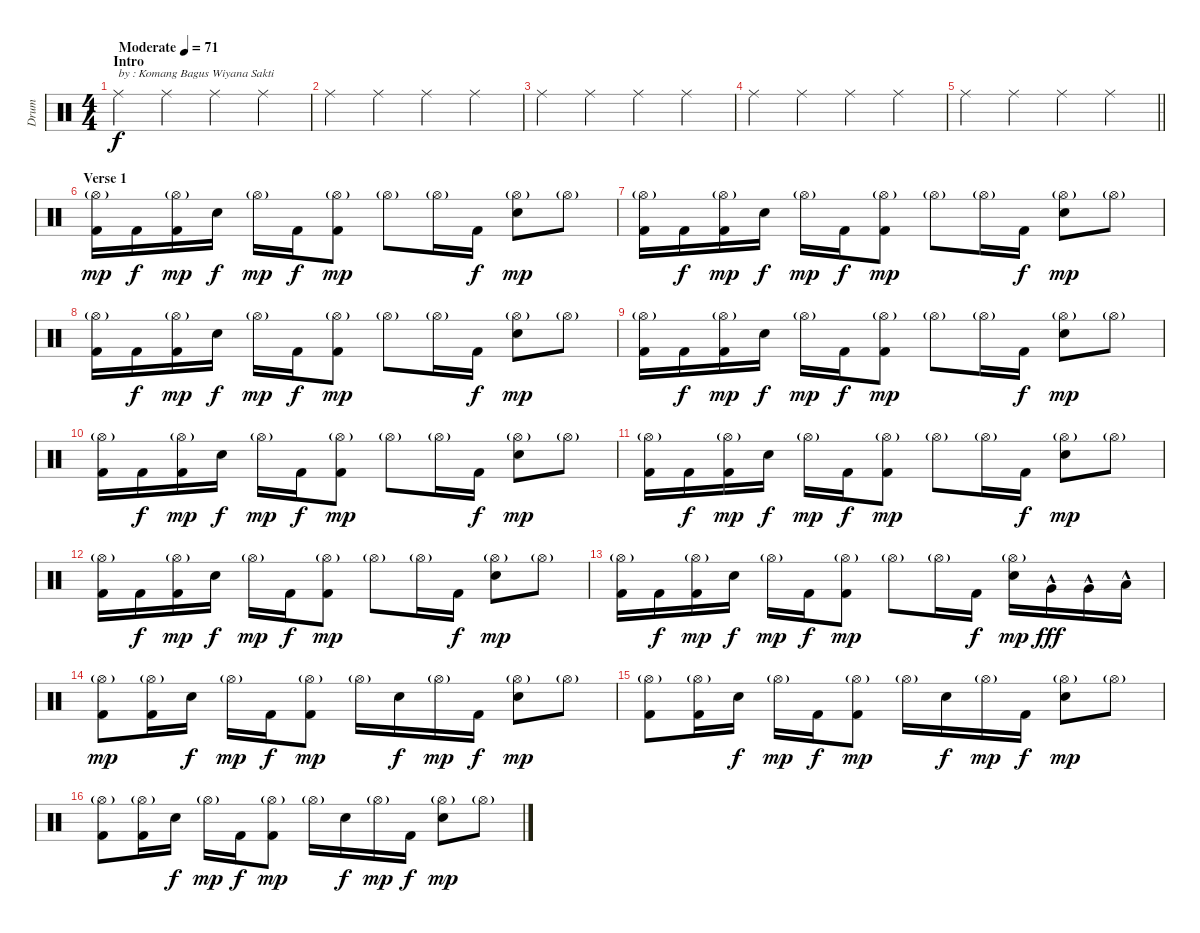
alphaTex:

\track ("Drum" "Drum") {instrument percussion}
\staff {score}
\articulation defaults
\ts (4 4)
\section ("" "Intro")
\tempo (71 "Moderate")
\clef neutral
\ks c "Ride (middle)".4{txt "by : Komang Bagus Wiyana Sakti" dy f} "Ride (middle)".4 "Ride (middle)".4 "Ride (middle)".4
|
"Ride (middle)".4 "Ride (middle)".4 "Ride (middle)".4 "Ride (middle)".4 |
"Ride (middle)".4 "Ride (middle)".4 "Ride (middle)".4 "Ride (middle)".4 |
"Ride (middle)".4 "Ride (middle)".4 "Ride (middle)".4 "Ride (middle)".4 |
\barLineRight lightlight "Ride (middle)".4 "Ride (middle)".4 "Ride (middle)".4 "Ride (middle)".4
|
\section ("" "Verse 1")
("Hi-Hat (open)"{g} "Kick (hit) 2").16{dy mp} "Kick (hit) 2".16{dy f} ("Hi-Hat (open)"{g} "Kick (hit) 2").16{dy mp} "Electric Snare (hit)".16{dy f} "Hi-Hat (open)"{g}.16{dy mp} "Kick (hit) 2".16{dy f} ("Hi-Hat (open)"{g} "Kick (hit) 2").8{dy mp} "Hi-Hat (open)"{g}.8 "Hi-Hat (open)"{g}.16 "Kick (hit) 2".16{dy f} ("Hi-Hat (open)"{g} "Electric Snare (hit)").8{dy mp} "Hi-Hat (open)"{g}.8 |
("Hi-Hat (open)"{g} "Kick (hit) 2").16 "Kick (hit) 2".16{dy f} ("Hi-Hat (open)"{g} "Kick (hit) 2").16{dy mp} "Electric Snare (hit)".16{dy f} "Hi-Hat (open)"{g}.16{dy mp} "Kick (hit) 2".16{dy f} ("Hi-Hat (open)"{g} "Kick (hit) 2").8{dy mp} "Hi-Hat (open)"{g}.8 "Hi-Hat (open)"{g}.16 "Kick (hit) 2".16{dy f} ("Hi-Hat (open)"{g} "Electric Snare (hit)").8{dy mp} "Hi-Hat (open)"{g}.8 |
("Hi-Hat (open)"{g} "Kick (hit) 2").16 "Kick (hit) 2".16{dy f} ("Hi-Hat (open)"{g} "Kick (hit) 2").16{dy mp} "Electric Snare (hit)".16{dy f} "Hi-Hat (open)"{g}.16{dy mp} "Kick (hit) 2".16{dy f} ("Hi-Hat (open)"{g} "Kick (hit) 2").8{dy mp} "Hi-Hat (open)"{g}.8 "Hi-Hat (open)"{g}.16 "Kick (hit) 2".16{dy f} ("Hi-Hat (open)"{g} "Electric Snare (hit)").8{dy mp} "Hi-Hat (open)"{g}.8 |
("Hi-Hat (open)"{g} "Kick (hit) 2").16 "Kick (hit) 2".16{dy f} ("Hi-Hat (open)"{g} "Kick (hit) 2").16{dy mp} "Electric Snare (hit)".16{dy f} "Hi-Hat (open)"{g}.16{dy mp} "Kick (hit) 2".16{dy f} ("Hi-Hat (open)"{g} "Kick (hit) 2").8{dy mp} "Hi-Hat (open)"{g}.8 "Hi-Hat (open)"{g}.16 "Kick (hit) 2".16{dy f} ("Hi-Hat (open)"{g} "Electric Snare (hit)").8{dy mp} "Hi-Hat (open)"{g}.8 |
("Hi-Hat (open)"{g} "Kick (hit) 2").16 "Kick (hit) 2".16{dy f} ("Hi-Hat (open)"{g} "Kick (hit) 2").16{dy mp} "Electric Snare (hit)".16{dy f} "Hi-Hat (open)"{g}.16{dy mp} "Kick (hit) 2".16{dy f} ("Hi-Hat (open)"{g} "Kick (hit) 2").8{dy mp} "Hi-Hat (open)"{g}.8 "Hi-Hat (open)"{g}.16 "Kick (hit) 2".16{dy f} ("Hi-Hat (open)"{g} "Electric Snare (hit)").8{dy mp} "Hi-Hat (open)"{g}.8 |
("Hi-Hat (open)"{g} "Kick (hit) 2").16 "Kick (hit) 2".16{dy f} ("Hi-Hat (open)"{g} "Kick (hit) 2").16{dy mp} "Electric Snare (hit)".16{dy f} "Hi-Hat (open)"{g}.16{dy mp} "Kick (hit) 2".16{dy f} ("Hi-Hat (open)"{g} "Kick (hit) 2").8{dy mp} "Hi-Hat (open)"{g}.8 "Hi-Hat (open)"{g}.16 "Kick (hit) 2".16{dy f} ("Hi-Hat (open)"{g} "Electric Snare (hit)").8{dy mp} "Hi-Hat (open)"{g}.8 |
("Hi-Hat (open)"{g} "Kick (hit) 2").16 "Kick (hit) 2".16{dy f} ("Hi-Hat (open)"{g} "Kick (hit) 2").16{dy mp} "Electric Snare (hit)".16{dy f} "Hi-Hat (open)"{g}.16{dy mp} "Kick (hit) 2".16{dy f} ("Hi-Hat (open)"{g} "Kick (hit) 2").8{dy mp} "Hi-Hat (open)"{g}.8 "Hi-Hat (open)"{g}.16 "Kick (hit) 2".16{dy f} ("Hi-Hat (open)"{g} "Electric Snare (hit)").8{dy mp} "Hi-Hat (open)"{g}.8 |
("Hi-Hat (open)"{g} "Kick (hit) 2").16 "Kick (hit) 2".16{dy f} ("Hi-Hat (open)"{g} "Kick (hit) 2").16{dy mp} "Electric Snare (hit)".16{dy f} "Hi-Hat (open)"{g}.16{dy mp} "Kick (hit) 2".16{dy f} ("Hi-Hat (open)"{g} "Kick (hit) 2").8{dy mp} "Hi-Hat (open)"{g}.8 "Hi-Hat (open)"{g}.16 "Kick (hit) 2".16{dy f} ("Hi-Hat (open)"{g} "Electric Snare (hit)").16{dy mp} "Very Low Tom (hit)"{hac}.16{dy fff} "Very Low Tom (hit)"{hac}.16 "Low Floor Tom (hit)"{hac}.16 |
("Hi-Hat (open)"{g} "Kick (hit) 2").8{dy mp} ("Hi-Hat (open)"{g} "Kick (hit) 2").16 "Electric Snare (hit)".16{dy f} "Hi-Hat (open)"{g}.16{dy mp} "Kick (hit) 2".16{dy f} ("Hi-Hat (open)"{g} "Kick (hit) 2").8{dy mp} "Hi-Hat (open)"{g}.16 "Electric Snare (hit)".16{dy f} "Hi-Hat (open)"{g}.16{dy mp} "Kick (hit) 2".16{dy f} ("Hi-Hat (open)"{g} "Electric Snare (hit)").8{dy mp} "Hi-Hat (open)"{g}.8 |
("Hi-Hat (open)"{g} "Kick (hit) 2").8 ("Hi-Hat (open)"{g} "Kick (hit) 2").16 "Electric Snare (hit)".16{dy f} "Hi-Hat (open)"{g}.16{dy mp} "Kick (hit) 2".16{dy f} ("Hi-Hat (open)"{g} "Kick (hit) 2").8{dy mp} "Hi-Hat (open)"{g}.16 "Electric Snare (hit)".16{dy f} "Hi-Hat (open)"{g}.16{dy mp} "Kick (hit) 2".16{dy f} ("Hi-Hat (open)"{g} "Electric Snare (hit)").8{dy mp} "Hi-Hat (open)"{g}.8 |
("Hi-Hat (open)"{g} "Kick (hit) 2").8 ("Hi-Hat (open)"{g} "Kick (hit) 2").16 "Electric Snare (hit)".16{dy f} "Hi-Hat (open)"{g}.16{dy mp} "Kick (hit) 2".16{dy f} ("Hi-Hat (open)"{g} "Kick (hit) 2").8{dy mp} "Hi-Hat (open)"{g}.16 "Electric Snare (hit)".16{dy f} "Hi-Hat (open)"{g}.16{dy mp} "Kick (hit) 2".16{dy f} ("Hi-Hat (open)"{g} "Electric Snare (hit)").8{dy mp} "Hi-Hat (open)"{g}.8
